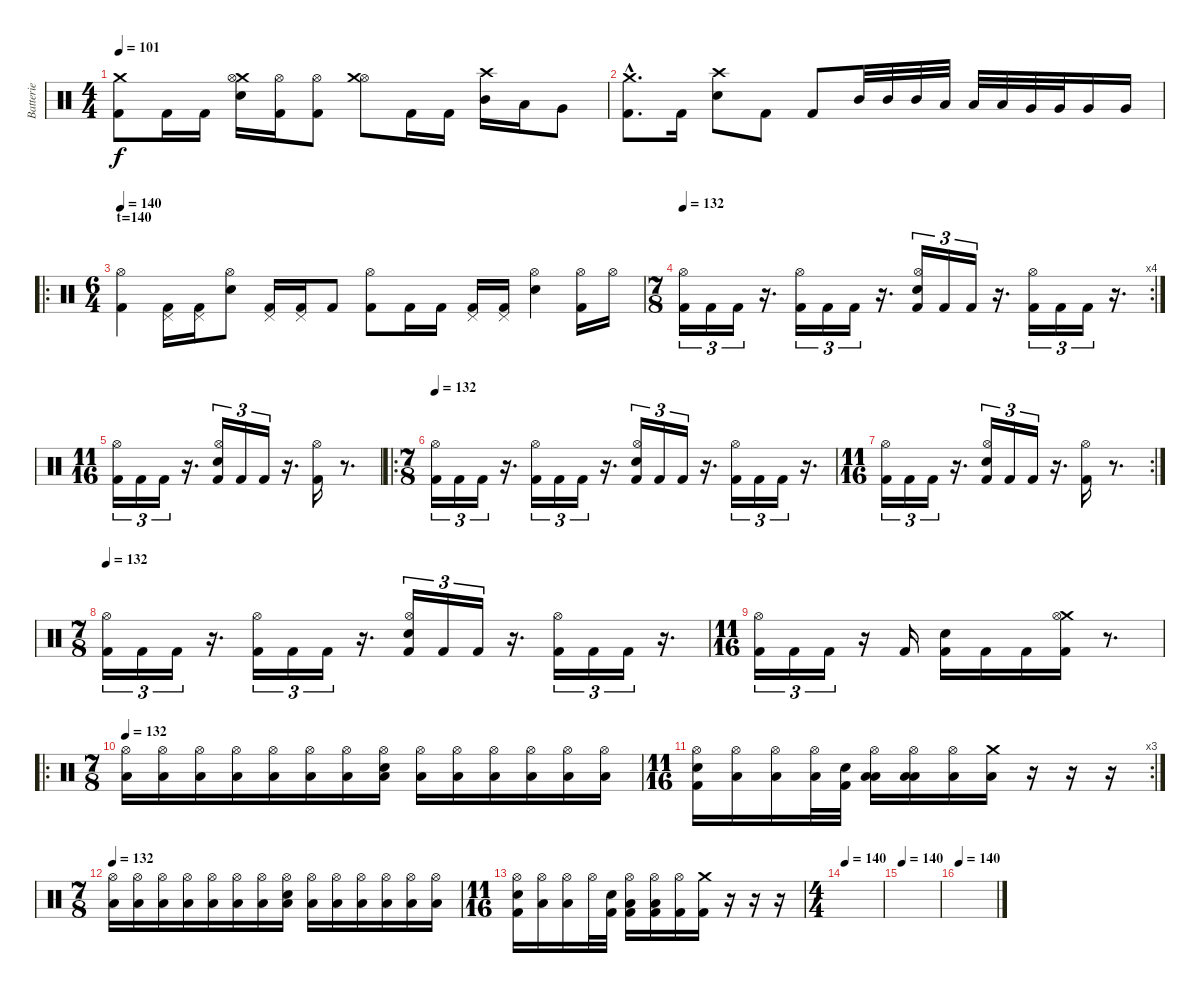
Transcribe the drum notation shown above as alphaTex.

\track ("Batterie" "Batterie") {instrument percussion}
\staff {score}
\articulation defaults
\ts (4 4)
\tempo 101
\clef neutral
\ks c
("Crash medium (hit)" "Kick (hit) 2").8{dy f} "Kick (hit) 2".16 "Kick (hit) 2".16 ("Crash medium (hit)" "Hi-Hat (open)" "Electric Snare (hit)").16 ("Hi-Hat (open)" "Kick (hit) 2").16 ("Hi-Hat (open)" "Kick (hit) 2").8 ("Hi-Hat (open)" "Crash medium (hit)").8 "Kick (hit) 2".16 "Kick (hit) 2".16 ("Crash high (hit)" "Mid Tom (hit)").16 "Low Tom (hit)".16 "Very Low Tom (hit)".8 |
("Crash medium (hit)"{hac} "Kick (hit) 2"{hac}).8{d} "Kick (hit) 2".16 ("Crash high (hit)" "Electric Snare (hit)").8 "Kick (hit) 2".8 "Kick (hit) 2".8 "Mid Tom (hit)".32 "Mid Tom (hit)".32 "Mid Tom (hit)".32 "Low Tom (hit)".32 "Low Tom (hit)".32 "Low Tom (hit)".32 "Very Low Tom (hit)".32 "Very Low Tom (hit)".32 "Very Low Tom (hit)".16 "Very Low Tom (hit)".16 |
\ro
\ts (6 4)
\section ("" "t=140")
\tempo 140
("Hi-Hat (open)" "Kick (hit) 2").4 ("Pedal Hi-Hat (hit)" "Kick (hit) 2").16 ("Pedal Hi-Hat (hit)" "Kick (hit) 2").16 ("Hi-Hat (open)" "Electric Snare (hit)").8 ("Pedal Hi-Hat (hit)" "Kick (hit) 2").16 ("Pedal Hi-Hat (hit)" "Kick (hit) 2").16 "Kick (hit) 2".8 ("Hi-Hat (open)" "Kick (hit) 2").8 "Kick (hit) 2".16 "Kick (hit) 2".16 ("Pedal Hi-Hat (hit)" "Kick (hit) 2").16 ("Pedal Hi-Hat (hit)" "Kick (hit) 2").16 ("Hi-Hat (open)" "Electric Snare (hit)").4 ("Hi-Hat (open)" "Kick (hit) 2").16 "Hi-Hat (open)".16 |
\rc 4
\ts (7 8)
\tempo 132
("Hi-Hat (open)" "Kick (hit) 2").16{tu (3 2)} "Kick (hit) 2".16{tu (3 2)} "Kick (hit) 2".16{tu (3 2)} r.16{d} ("Hi-Hat (open)" "Kick (hit) 2").16{tu (3 2)} "Kick (hit) 2".16{tu (3 2)} "Kick (hit) 2".16{tu (3 2)} r.16{d} ("Hi-Hat (open)" "Electric Snare (hit)" "Kick (hit) 2").16{tu (3 2)} "Kick (hit) 2".16{tu (3 2)} "Kick (hit) 2".16{tu (3 2)} r.16{d} ("Hi-Hat (open)" "Kick (hit) 2").16{tu (3 2)} "Kick (hit) 2".16{tu (3 2)} "Kick (hit) 2".16{tu (3 2)} r.16{d} |
\ts (11 16)
("Hi-Hat (open)" "Kick (hit) 2").16{tu (3 2)} "Kick (hit) 2".16{tu (3 2)} "Kick (hit) 2".16{tu (3 2)} r.16{d} ("Electric Snare (hit)" "Hi-Hat (open)" "Kick (hit) 2").16{tu (3 2)} "Kick (hit) 2".16{tu (3 2)} "Kick (hit) 2".16{tu (3 2)} r.16{d} ("Hi-Hat (open)" "Kick (hit) 2").16 r.8{d} |
\ro
\ts (7 8)
\tempo 132
("Hi-Hat (open)" "Kick (hit) 2").16{tu (3 2)} "Kick (hit) 2".16{tu (3 2)} "Kick (hit) 2".16{tu (3 2)} r.16{d} ("Hi-Hat (open)" "Kick (hit) 2").16{tu (3 2)} "Kick (hit) 2".16{tu (3 2)} "Kick (hit) 2".16{tu (3 2)} r.16{d} ("Hi-Hat (open)" "Electric Snare (hit)" "Kick (hit) 2").16{tu (3 2)} "Kick (hit) 2".16{tu (3 2)} "Kick (hit) 2".16{tu (3 2)} r.16{d} ("Hi-Hat (open)" "Kick (hit) 2").16{tu (3 2)} "Kick (hit) 2".16{tu (3 2)} "Kick (hit) 2".16{tu (3 2)} r.16{d} |
\rc 2
\ts (11 16)
("Hi-Hat (open)" "Kick (hit) 2").16{tu (3 2)} "Kick (hit) 2".16{tu (3 2)} "Kick (hit) 2".16{tu (3 2)} r.16{d} ("Electric Snare (hit)" "Hi-Hat (open)" "Kick (hit) 2").16{tu (3 2)} "Kick (hit) 2".16{tu (3 2)} "Kick (hit) 2".16{tu (3 2)} r.16{d} ("Hi-Hat (open)" "Kick (hit) 2").16 r.8{d} |
\ts (7 8)
\tempo 132
("Hi-Hat (open)" "Kick (hit) 2").16{tu (3 2)} "Kick (hit) 2".16{tu (3 2)} "Kick (hit) 2".16{tu (3 2)} r.16{d} ("Hi-Hat (open)" "Kick (hit) 2").16{tu (3 2)} "Kick (hit) 2".16{tu (3 2)} "Kick (hit) 2".16{tu (3 2)} r.16{d} ("Hi-Hat (open)" "Electric Snare (hit)" "Kick (hit) 2").16{tu (3 2)} "Kick (hit) 2".16{tu (3 2)} "Kick (hit) 2".16{tu (3 2)} r.16{d} ("Hi-Hat (open)" "Kick (hit) 2").16{tu (3 2)} "Kick (hit) 2".16{tu (3 2)} "Kick (hit) 2".16{tu (3 2)} r.16{d} |
\ts (11 16)
("Hi-Hat (open)" "Kick (hit) 2").16{tu (3 2)} "Kick (hit) 2".16{tu (3 2)} "Kick (hit) 2".16{tu (3 2)} r.16 "Kick (hit) 2".16 ("Electric Snare (hit)" "Kick (hit) 2").16 "Kick (hit) 2".16 "Kick (hit) 2".16 ("Crash medium (hit)" "Hi-Hat (open)" "Kick (hit) 2").16 r.8{d} |
\ro
\ts (7 8)
\tempo 132
("Hi-Hat (open)" "Low Floor Tom (hit)").16 ("Hi-Hat (open)" "Low Floor Tom (hit)").16 ("Hi-Hat (open)" "Low Floor Tom (hit)").16 ("Hi-Hat (open)" "Low Floor Tom (hit)").16 ("Hi-Hat (open)" "Low Floor Tom (hit)").16 ("Hi-Hat (open)" "Low Floor Tom (hit)").16 ("Hi-Hat (open)" "Low Floor Tom (hit)").16 ("Hi-Hat (open)" "Electric Snare (hit)" "Low Floor Tom (hit)").16 ("Hi-Hat (open)" "Low Floor Tom (hit)").16 ("Hi-Hat (open)" "Low Floor Tom (hit)").16 ("Hi-Hat (open)" "Low Floor Tom (hit)").16 ("Hi-Hat (open)" "Low Floor Tom (hit)").16 ("Hi-Hat (open)" "Low Floor Tom (hit)").16 ("Hi-Hat (open)" "Low Floor Tom (hit)").16 |
\rc 3
\ts (11 16)
("Hi-Hat (open)" "Electric Snare (hit)" "Kick (hit) 2").16 ("Hi-Hat (open)" "Low Floor Tom (hit)").16 ("Hi-Hat (open)" "Low Floor Tom (hit)").16 ("Hi-Hat (open)" "Low Floor Tom (hit)").32 ("Kick (hit) 2" "Electric Snare (hit)").32 ("Hi-Hat (open)" "Low Tom (hit)" "Low Floor Tom (hit)").16 ("Hi-Hat (open)" "Low Tom (hit)" "Low Floor Tom (hit)").16 ("Hi-Hat (open)" "Low Floor Tom (hit)").16 ("Crash medium (hit)" "Low Floor Tom (hit)").16 r.16 r.16 r.16 |
\ts (7 8)
\tempo 132
("Hi-Hat (open)" "Low Floor Tom (hit)").16 ("Hi-Hat (open)" "Low Floor Tom (hit)").16 ("Hi-Hat (open)" "Low Floor Tom (hit)").16 ("Hi-Hat (open)" "Low Floor Tom (hit)").16 ("Hi-Hat (open)" "Low Floor Tom (hit)").16 ("Hi-Hat (open)" "Low Floor Tom (hit)").16 ("Hi-Hat (open)" "Low Floor Tom (hit)").16 ("Hi-Hat (open)" "Electric Snare (hit)" "Low Floor Tom (hit)").16 ("Hi-Hat (open)" "Low Floor Tom (hit)").16 ("Hi-Hat (open)" "Low Floor Tom (hit)").16 ("Hi-Hat (open)" "Low Floor Tom (hit)").16 ("Hi-Hat (open)" "Low Floor Tom (hit)").16 ("Hi-Hat (open)" "Low Floor Tom (hit)").16 ("Hi-Hat (open)" "Low Floor Tom (hit)").16 |
\ts (11 16)
("Hi-Hat (open)" "Electric Snare (hit)" "Kick (hit) 2").16 ("Hi-Hat (open)" "Low Floor Tom (hit)").16 ("Hi-Hat (open)" "Low Floor Tom (hit)").16 "Hi-Hat (open)".32 ("Kick (hit) 2" "Electric Snare (hit)").32 ("Hi-Hat (open)" "Low Tom (hit)" "Kick (hit) 2").16 ("Hi-Hat (open)" "Low Tom (hit)" "Kick (hit) 2").16 ("Hi-Hat (open)" "Kick (hit) 2").16 ("Crash medium (hit)" "Kick (hit) 2").16 r.16 r.16 r.16 |
\ts (4 4)
\tempo 140
|
\tempo 140
|
\tempo 140
